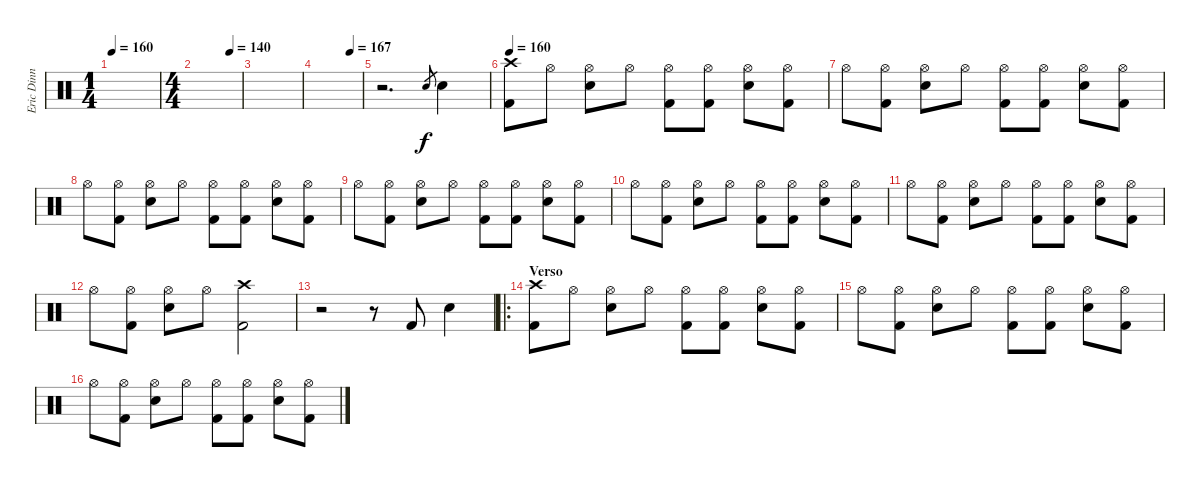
\track ("Eric Dinn" "Eric Dinn") {instrument percussion}
\staff {score}
\articulation defaults
\ts (1 4)
\tempo 160
\tempo 130
\tempo 160
\clef neutral
\ks c
|
\ts (4 4)
\tempo (140 0.75)
|
|
\tempo (167 0.75)
|
r.2{d} "Snare (hit) 2".8{gr} "Snare (hit) 2".4 |
\tempo 160
("Crash high (hit)" "Kick (hit) 2").8{dy f} "Hi-Hat (open)".8 ("Hi-Hat (open)" "Snare (hit) 2").8 "Hi-Hat (open)".8 ("Hi-Hat (open)" "Kick (hit) 2").8 ("Hi-Hat (open)" "Kick (hit) 2").8 ("Hi-Hat (open)" "Snare (hit) 2").8 ("Hi-Hat (open)" "Kick (hit) 2").8 |
"Hi-Hat (open)".8 ("Hi-Hat (open)" "Kick (hit) 2").8 ("Hi-Hat (open)" "Snare (hit) 2").8 "Hi-Hat (open)".8 ("Hi-Hat (open)" "Kick (hit) 2").8 ("Hi-Hat (open)" "Kick (hit) 2").8 ("Hi-Hat (open)" "Snare (hit) 2").8 ("Hi-Hat (open)" "Kick (hit) 2").8 |
"Hi-Hat (open)".8 ("Hi-Hat (open)" "Kick (hit) 2").8 ("Hi-Hat (open)" "Snare (hit) 2").8 "Hi-Hat (open)".8 ("Hi-Hat (open)" "Kick (hit) 2").8 ("Hi-Hat (open)" "Kick (hit) 2").8 ("Hi-Hat (open)" "Snare (hit) 2").8 ("Hi-Hat (open)" "Kick (hit) 2").8 |
"Hi-Hat (open)".8 ("Hi-Hat (open)" "Kick (hit) 2").8 ("Hi-Hat (open)" "Snare (hit) 2").8 "Hi-Hat (open)".8 ("Hi-Hat (open)" "Kick (hit) 2").8 ("Hi-Hat (open)" "Kick (hit) 2").8 ("Hi-Hat (open)" "Snare (hit) 2").8 ("Hi-Hat (open)" "Kick (hit) 2").8 |
"Hi-Hat (open)".8 ("Hi-Hat (open)" "Kick (hit) 2").8 ("Hi-Hat (open)" "Snare (hit) 2").8 "Hi-Hat (open)".8 ("Hi-Hat (open)" "Kick (hit) 2").8 ("Hi-Hat (open)" "Kick (hit) 2").8 ("Hi-Hat (open)" "Snare (hit) 2").8 ("Hi-Hat (open)" "Kick (hit) 2").8 |
"Hi-Hat (open)".8 ("Hi-Hat (open)" "Kick (hit) 2").8 ("Hi-Hat (open)" "Snare (hit) 2").8 "Hi-Hat (open)".8 ("Hi-Hat (open)" "Kick (hit) 2").8 ("Hi-Hat (open)" "Kick (hit) 2").8 ("Hi-Hat (open)" "Snare (hit) 2").8 ("Hi-Hat (open)" "Kick (hit) 2").8 |
"Hi-Hat (open)".8 ("Hi-Hat (open)" "Kick (hit) 2").8 ("Hi-Hat (open)" "Snare (hit) 2").8 "Hi-Hat (open)".8 ("Crash high (hit)" "Kick (hit) 2").2 |
r.2 r.8 "Kick (hit) 2".8 "Snare (hit) 2".4 |
\ro
\section ("" "Verso")
("Crash high (hit)" "Kick (hit) 2").8 "Hi-Hat (open)".8 ("Hi-Hat (open)" "Snare (hit) 2").8 "Hi-Hat (open)".8 ("Hi-Hat (open)" "Kick (hit) 2").8 ("Hi-Hat (open)" "Kick (hit) 2").8 ("Hi-Hat (open)" "Snare (hit) 2").8 ("Hi-Hat (open)" "Kick (hit) 2").8 |
"Hi-Hat (open)".8 ("Hi-Hat (open)" "Kick (hit) 2").8 ("Hi-Hat (open)" "Snare (hit) 2").8 "Hi-Hat (open)".8 ("Hi-Hat (open)" "Kick (hit) 2").8 ("Hi-Hat (open)" "Kick (hit) 2").8 ("Hi-Hat (open)" "Snare (hit) 2").8 ("Hi-Hat (open)" "Kick (hit) 2").8 |
"Hi-Hat (open)".8 ("Hi-Hat (open)" "Kick (hit) 2").8 ("Hi-Hat (open)" "Snare (hit) 2").8 "Hi-Hat (open)".8 ("Hi-Hat (open)" "Kick (hit) 2").8 ("Hi-Hat (open)" "Kick (hit) 2").8 ("Hi-Hat (open)" "Snare (hit) 2").8 ("Hi-Hat (open)" "Kick (hit) 2").8
